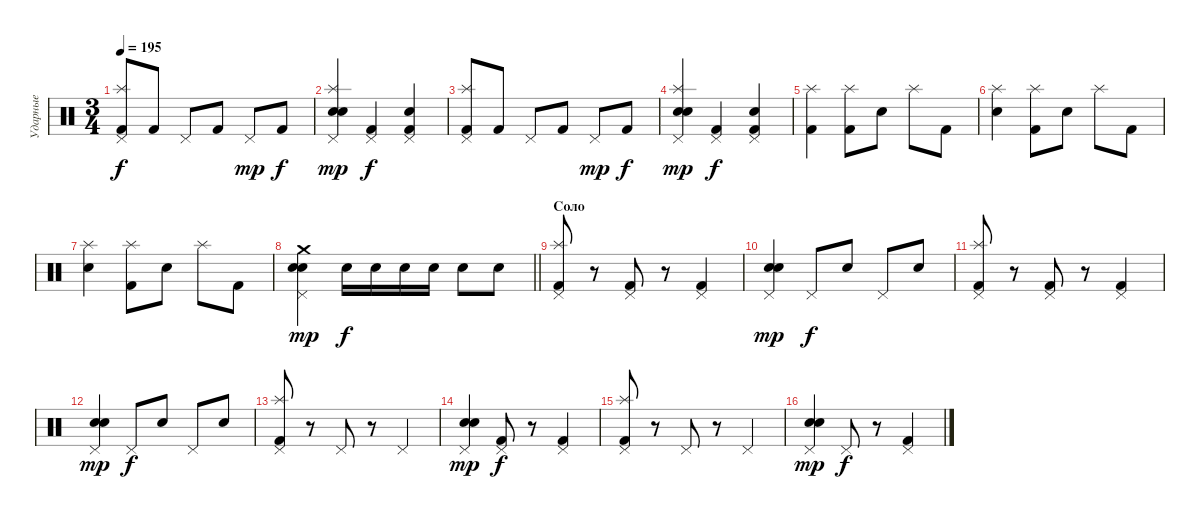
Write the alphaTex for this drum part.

\track ("Ударные" "Ударные") {instrument percussion}
\staff {score}
\articulation defaults
\ts (3 4)
\tempo 195
\clef neutral
\ks c
("Pedal Hi-Hat (hit)" "Splash (hit)" "Kick (hit) 2").8{dy f} "Kick (hit) 2".8 "Pedal Hi-Hat (hit)".8 "Kick (hit) 2".8 "Pedal Hi-Hat (hit)".8{dy mp} "Kick (hit) 2".8{dy f} |
("Pedal Hi-Hat (hit)" "Splash (hit)" "Electric Snare (hit)" "Snare (hit) 2").4{dy mp} ("Pedal Hi-Hat (hit)" "Kick (hit) 2").4{dy f} ("Pedal Hi-Hat (hit)" "Electric Snare (hit)" "Kick (hit) 2").4 |
("Pedal Hi-Hat (hit)" "Splash (hit)" "Kick (hit) 2").8 "Kick (hit) 2".8 "Pedal Hi-Hat (hit)".8 "Kick (hit) 2".8 "Pedal Hi-Hat (hit)".8{dy mp} "Kick (hit) 2".8{dy f} |
("Pedal Hi-Hat (hit)" "Splash (hit)" "Electric Snare (hit)" "Snare (hit) 2").4{dy mp} ("Pedal Hi-Hat (hit)" "Kick (hit) 2").4{dy f} ("Pedal Hi-Hat (hit)" "Electric Snare (hit)" "Kick (hit) 2").4 |
("Splash (hit)" "Kick (hit) 2").4 ("Splash (hit)" "Kick (hit) 2").8 "Electric Snare (hit)".8 "Splash (hit)".8 "Kick (hit) 2".8 |
("Splash (hit)" "Electric Snare (hit)").4 ("Splash (hit)" "Kick (hit) 2").8 "Electric Snare (hit)".8 "Splash (hit)".8 "Kick (hit) 2".8 |
("Splash (hit)" "Electric Snare (hit)").4 ("Splash (hit)" "Kick (hit) 2").8 "Electric Snare (hit)".8 "Splash (hit)".8 "Kick (hit) 2".8 |
\barLineRight lightlight
("Pedal Hi-Hat (hit)" "Crash medium (hit)" "Electric Snare (hit)" "Snare (hit) 2").4{dy mp} "Electric Snare (hit)".16{dy f} "Electric Snare (hit)".16 "Electric Snare (hit)".16 "Electric Snare (hit)".16 "Electric Snare (hit)".8 "Electric Snare (hit)".8 |
\section ("" "Соло")
("Pedal Hi-Hat (hit)" "Splash (hit)" "Kick (hit) 2").8 r.8 ("Pedal Hi-Hat (hit)" "Kick (hit) 2").8 r.8 ("Pedal Hi-Hat (hit)" "Kick (hit) 2").4 |
("Pedal Hi-Hat (hit)" "Electric Snare (hit)" "Snare (hit) 2").4{dy mp} "Pedal Hi-Hat (hit)".8{dy f} "Electric Snare (hit)".8 "Pedal Hi-Hat (hit)".8 "Electric Snare (hit)".8 |
("Pedal Hi-Hat (hit)" "Splash (hit)" "Kick (hit) 2").8 r.8 ("Pedal Hi-Hat (hit)" "Kick (hit) 2").8 r.8 ("Pedal Hi-Hat (hit)" "Kick (hit) 2").4 |
("Pedal Hi-Hat (hit)" "Electric Snare (hit)" "Snare (hit) 2").4{dy mp} "Pedal Hi-Hat (hit)".8{dy f} "Electric Snare (hit)".8 "Pedal Hi-Hat (hit)".8 "Electric Snare (hit)".8 |
("Pedal Hi-Hat (hit)" "Splash (hit)" "Kick (hit) 2").8 r.8 "Pedal Hi-Hat (hit)".8 r.8 "Pedal Hi-Hat (hit)".4 |
("Pedal Hi-Hat (hit)" "Electric Snare (hit)" "Snare (hit) 2").4{dy mp} ("Pedal Hi-Hat (hit)" "Kick (hit) 2").8{dy f} r.8 ("Pedal Hi-Hat (hit)" "Kick (hit) 2").4 |
("Pedal Hi-Hat (hit)" "Splash (hit)" "Kick (hit) 2").8 r.8 "Pedal Hi-Hat (hit)".8 r.8 "Pedal Hi-Hat (hit)".4 |
("Pedal Hi-Hat (hit)" "Electric Snare (hit)" "Snare (hit) 2").4{dy mp} "Pedal Hi-Hat (hit)".8{dy f} r.8 ("Pedal Hi-Hat (hit)" "Kick (hit) 2").4
